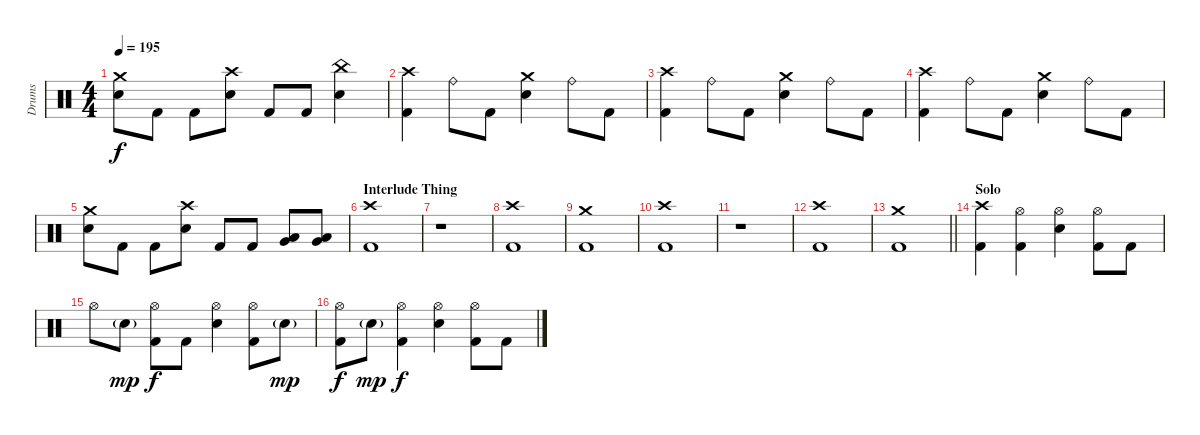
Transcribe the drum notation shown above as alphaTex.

\track ("Drums" "Drums") {instrument percussion}
\staff {score}
\articulation defaults
\ts (4 4)
\tempo 195
\clef neutral
\ks c
("Crash medium (hit)" "Electric Snare (hit)").8{dy f} "Kick (hit) 2".8 "Kick (hit) 2".8 ("Crash high (hit)" "Electric Snare (hit)").8 "Kick (hit) 2".8 "Kick (hit) 2".8 ("China (hit)" "Electric Snare (hit)").4 |
("Crash high (hit)" "Kick (hit) 2").4 "Ride (bell)".8 "Kick (hit) 2".8 ("Crash medium (hit)" "Electric Snare (hit)").4 "Ride (bell)".8 "Kick (hit) 2".8 |
("Crash high (hit)" "Kick (hit) 2").4 "Ride (bell)".8 "Kick (hit) 2".8 ("Crash medium (hit)" "Electric Snare (hit)").4 "Ride (bell)".8 "Kick (hit) 2".8 |
("Crash high (hit)" "Kick (hit) 2").4 "Ride (bell)".8 "Kick (hit) 2".8 ("Crash medium (hit)" "Electric Snare (hit)").4 "Ride (bell)".8 "Kick (hit) 2".8 |
("Crash medium (hit)" "Electric Snare (hit)").8 "Kick (hit) 2".8 "Kick (hit) 2".8 ("Crash high (hit)" "Electric Snare (hit)").8 "Kick (hit) 2".8 "Kick (hit) 2".8 ("Low Tom (hit)" "Very Low Tom (hit)").8 ("Low Tom (hit)" "Very Low Tom (hit)").8 |
\section ("" "Interlude Thing")
("Crash high (hit)" "Kick (hit) 2").1 |
r.1 |
("Crash high (hit)" "Kick (hit) 2").1 |
("Crash medium (hit)" "Kick (hit) 2").1 |
("Crash high (hit)" "Kick (hit) 2").1 |
r.1 |
("Crash high (hit)" "Kick (hit) 2").1 |
\barLineRight lightlight
("Crash medium (hit)" "Kick (hit) 2").1 |
\section ("" "Solo")
("Crash high (hit)" "Kick (hit) 2").4 ("Hi-Hat (open)" "Kick (hit) 2").4 ("Hi-Hat (open)" "Electric Snare (hit)").4 ("Hi-Hat (open)" "Kick (hit) 2").8 "Kick (hit) 2".8 |
"Hi-Hat (open)".8 "Electric Snare (hit)"{g}.8{dy mp} ("Hi-Hat (open)" "Kick (hit) 2").8{dy f} "Kick (hit) 2".8 ("Hi-Hat (open)" "Electric Snare (hit)").4 ("Hi-Hat (open)" "Kick (hit) 2").8 "Electric Snare (hit)"{g}.8{dy mp} |
("Hi-Hat (open)" "Kick (hit) 2").8{dy f} "Electric Snare (hit)"{g}.8{dy mp} ("Hi-Hat (open)" "Kick (hit) 2").4{dy f} ("Hi-Hat (open)" "Electric Snare (hit)").4 ("Hi-Hat (open)" "Kick (hit) 2").8 "Kick (hit) 2".8
